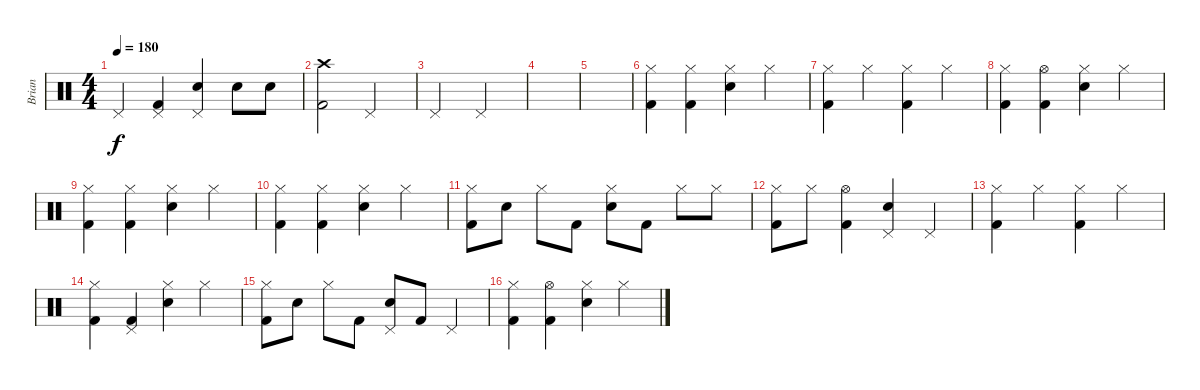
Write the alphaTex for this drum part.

\track ("Brian" "Brian") {instrument percussion}
\staff {score}
\articulation defaults
\ts (4 4)
\tempo 180
\clef neutral
\ks c "Pedal Hi-Hat (hit)".4{dy f}
("Pedal Hi-Hat (hit)" "Kick (hit) 2").4 ("Pedal Hi-Hat (hit)" "Snare (hit) 2").4 "Snare (hit) 2".8 "Snare (hit) 2".8 |
("Crash high (hit)" "Kick (hit) 2").2 "Pedal Hi-Hat (hit)".2 |
"Pedal Hi-Hat (hit)".2 "Pedal Hi-Hat (hit)".2 |
|
|
("Hi-Hat (closed)" "Kick (hit) 2").4 ("Hi-Hat (closed)" "Kick (hit) 2").4 ("Hi-Hat (closed)" "Snare (hit) 2").4 "Hi-Hat (closed)".4 |
("Hi-Hat (closed)" "Kick (hit) 2").4 "Hi-Hat (closed)".4 ("Hi-Hat (closed)" "Kick (hit) 2").4 "Hi-Hat (closed)".4 |
("Hi-Hat (closed)" "Kick (hit) 2").4 ("Hi-Hat (open)" "Kick (hit) 2").4 ("Hi-Hat (closed)" "Snare (hit) 2").4 "Hi-Hat (closed)".4 |
("Hi-Hat (closed)" "Kick (hit) 2").4 ("Hi-Hat (closed)" "Kick (hit) 2").4 ("Hi-Hat (closed)" "Snare (hit) 2").4 "Hi-Hat (closed)".4 |
("Hi-Hat (closed)" "Kick (hit) 2").4 ("Hi-Hat (closed)" "Kick (hit) 2").4 ("Hi-Hat (closed)" "Snare (hit) 2").4 "Hi-Hat (closed)".4 |
("Hi-Hat (closed)" "Kick (hit) 2").8 "Snare (hit) 2".8 "Hi-Hat (closed)".8 "Kick (hit) 2".8 ("Hi-Hat (closed)" "Snare (hit) 2").8 "Kick (hit) 2".8 "Hi-Hat (closed)".8 "Hi-Hat (closed)".8 |
("Hi-Hat (closed)" "Kick (hit) 2").8 "Hi-Hat (closed)".8 ("Hi-Hat (open)" "Kick (hit) 2").4 ("Pedal Hi-Hat (hit)" "Snare (hit) 2").4 "Pedal Hi-Hat (hit)".4 |
("Hi-Hat (closed)" "Kick (hit) 2").4 "Hi-Hat (closed)".4 ("Hi-Hat (closed)" "Kick (hit) 2").4 "Hi-Hat (closed)".4 |
("Hi-Hat (closed)" "Kick (hit) 2").4 ("Pedal Hi-Hat (hit)" "Kick (hit) 2").4 ("Hi-Hat (closed)" "Snare (hit) 2").4 "Hi-Hat (closed)".4 |
("Hi-Hat (closed)" "Kick (hit) 2").8 "Snare (hit) 2".8 "Hi-Hat (closed)".8 "Kick (hit) 2".8 ("Pedal Hi-Hat (hit)" "Snare (hit) 2").8 "Kick (hit) 2".8 "Pedal Hi-Hat (hit)".4 |
("Hi-Hat (closed)" "Kick (hit) 2").4 ("Hi-Hat (open)" "Kick (hit) 2").4 ("Hi-Hat (closed)" "Snare (hit) 2").4 "Hi-Hat (closed)".4
